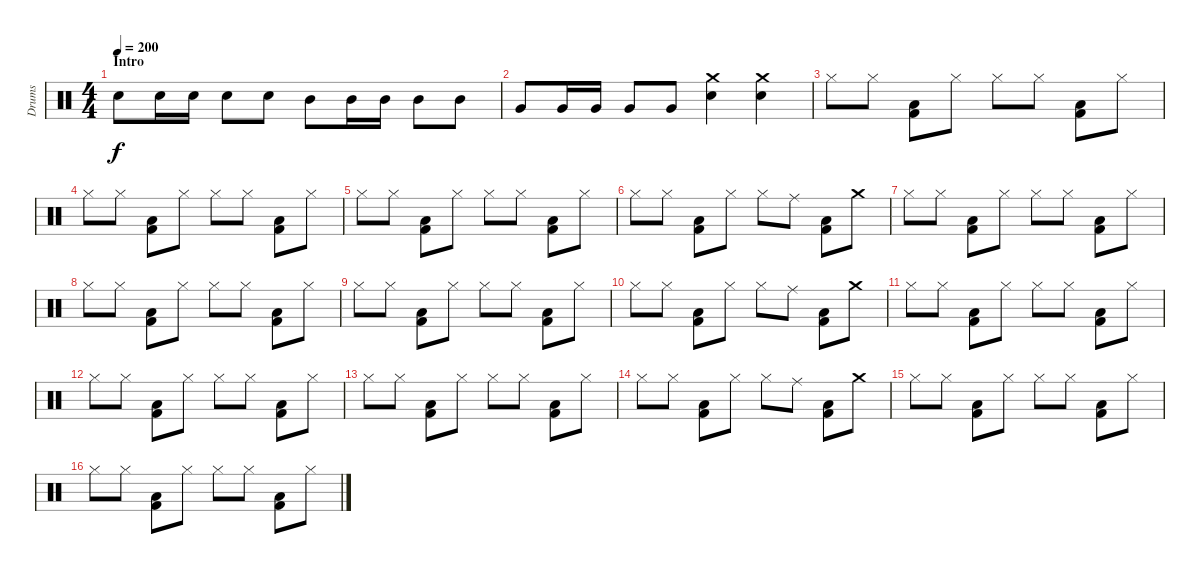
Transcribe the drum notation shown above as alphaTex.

\track ("Drums" "Drums") {instrument percussion}
\staff {score}
\articulation defaults
\ts (4 4)
\section ("" "Intro")
\tempo 200
\clef neutral
\ks c "Snare (hit) 2".8{dy f} "Snare (hit) 2".16 "Snare (hit) 2".16 "Snare (hit) 2".8 "Snare (hit) 2".8 "Mid Tom (hit)".8 "Mid Tom (hit)".16 "Mid Tom (hit)".16 "Mid Tom (hit)".8 "Mid Tom (hit)".8
|
"Very Low Tom (hit)".8 "Very Low Tom (hit)".16 "Very Low Tom (hit)".16 "Very Low Tom (hit)".8 "Very Low Tom (hit)".8 ("Crash medium (hit)" "Snare (hit) 2").4 ("Crash medium (hit)" "Snare (hit) 2").4 |
"Hi-Hat (closed)".8 "Hi-Hat (closed)".8 ("Low Floor Tom (hit)" "Kick (hit) 2").8 "Hi-Hat (closed)".8 "Hi-Hat (closed)".8 "Hi-Hat (closed)".8 ("Low Floor Tom (hit)" "Kick (hit) 2").8 "Hi-Hat (closed)".8 |
"Hi-Hat (closed)".8 "Hi-Hat (closed)".8 ("Low Floor Tom (hit)" "Kick (hit) 2").8 "Hi-Hat (closed)".8 "Hi-Hat (closed)".8 "Hi-Hat (closed)".8 ("Low Floor Tom (hit)" "Kick (hit) 2").8 "Hi-Hat (closed)".8 |
"Hi-Hat (closed)".8 "Hi-Hat (closed)".8 ("Low Floor Tom (hit)" "Kick (hit) 2").8 "Hi-Hat (closed)".8 "Hi-Hat (closed)".8 "Hi-Hat (closed)".8 ("Low Floor Tom (hit)" "Kick (hit) 2").8 "Hi-Hat (closed)".8 |
"Hi-Hat (closed)".8 "Hi-Hat (closed)".8 ("Low Floor Tom (hit)" "Kick (hit) 2").8 "Hi-Hat (closed)".8 "Hi-Hat (closed)".8 "Ride (middle)".8 ("Low Floor Tom (hit)" "Kick (hit) 2").8 "Crash medium (hit)".8 |
"Hi-Hat (closed)".8 "Hi-Hat (closed)".8 ("Low Floor Tom (hit)" "Kick (hit) 2").8 "Hi-Hat (closed)".8 "Hi-Hat (closed)".8 "Hi-Hat (closed)".8 ("Low Floor Tom (hit)" "Kick (hit) 2").8 "Hi-Hat (closed)".8 |
"Hi-Hat (closed)".8 "Hi-Hat (closed)".8 ("Low Floor Tom (hit)" "Kick (hit) 2").8 "Hi-Hat (closed)".8 "Hi-Hat (closed)".8 "Hi-Hat (closed)".8 ("Low Floor Tom (hit)" "Kick (hit) 2").8 "Hi-Hat (closed)".8 |
"Hi-Hat (closed)".8 "Hi-Hat (closed)".8 ("Low Floor Tom (hit)" "Kick (hit) 2").8 "Hi-Hat (closed)".8 "Hi-Hat (closed)".8 "Hi-Hat (closed)".8 ("Low Floor Tom (hit)" "Kick (hit) 2").8 "Hi-Hat (closed)".8 |
"Hi-Hat (closed)".8 "Hi-Hat (closed)".8 ("Low Floor Tom (hit)" "Kick (hit) 2").8 "Hi-Hat (closed)".8 "Hi-Hat (closed)".8 "Ride (middle)".8 ("Low Floor Tom (hit)" "Kick (hit) 2").8 "Crash medium (hit)".8 |
"Hi-Hat (closed)".8 "Hi-Hat (closed)".8 ("Low Floor Tom (hit)" "Kick (hit) 2").8 "Hi-Hat (closed)".8 "Hi-Hat (closed)".8 "Hi-Hat (closed)".8 ("Low Floor Tom (hit)" "Kick (hit) 2").8 "Hi-Hat (closed)".8 |
"Hi-Hat (closed)".8 "Hi-Hat (closed)".8 ("Low Floor Tom (hit)" "Kick (hit) 2").8 "Hi-Hat (closed)".8 "Hi-Hat (closed)".8 "Hi-Hat (closed)".8 ("Low Floor Tom (hit)" "Kick (hit) 2").8 "Hi-Hat (closed)".8 |
"Hi-Hat (closed)".8 "Hi-Hat (closed)".8 ("Low Floor Tom (hit)" "Kick (hit) 2").8 "Hi-Hat (closed)".8 "Hi-Hat (closed)".8 "Hi-Hat (closed)".8 ("Low Floor Tom (hit)" "Kick (hit) 2").8 "Hi-Hat (closed)".8 |
"Hi-Hat (closed)".8 "Hi-Hat (closed)".8 ("Low Floor Tom (hit)" "Kick (hit) 2").8 "Hi-Hat (closed)".8 "Hi-Hat (closed)".8 "Ride (middle)".8 ("Low Floor Tom (hit)" "Kick (hit) 2").8 "Crash medium (hit)".8 |
"Hi-Hat (closed)".8 "Hi-Hat (closed)".8 ("Low Floor Tom (hit)" "Kick (hit) 2").8 "Hi-Hat (closed)".8 "Hi-Hat (closed)".8 "Hi-Hat (closed)".8 ("Low Floor Tom (hit)" "Kick (hit) 2").8 "Hi-Hat (closed)".8 |
"Hi-Hat (closed)".8 "Hi-Hat (closed)".8 ("Low Floor Tom (hit)" "Kick (hit) 2").8 "Hi-Hat (closed)".8 "Hi-Hat (closed)".8 "Hi-Hat (closed)".8 ("Low Floor Tom (hit)" "Kick (hit) 2").8 "Hi-Hat (closed)".8
